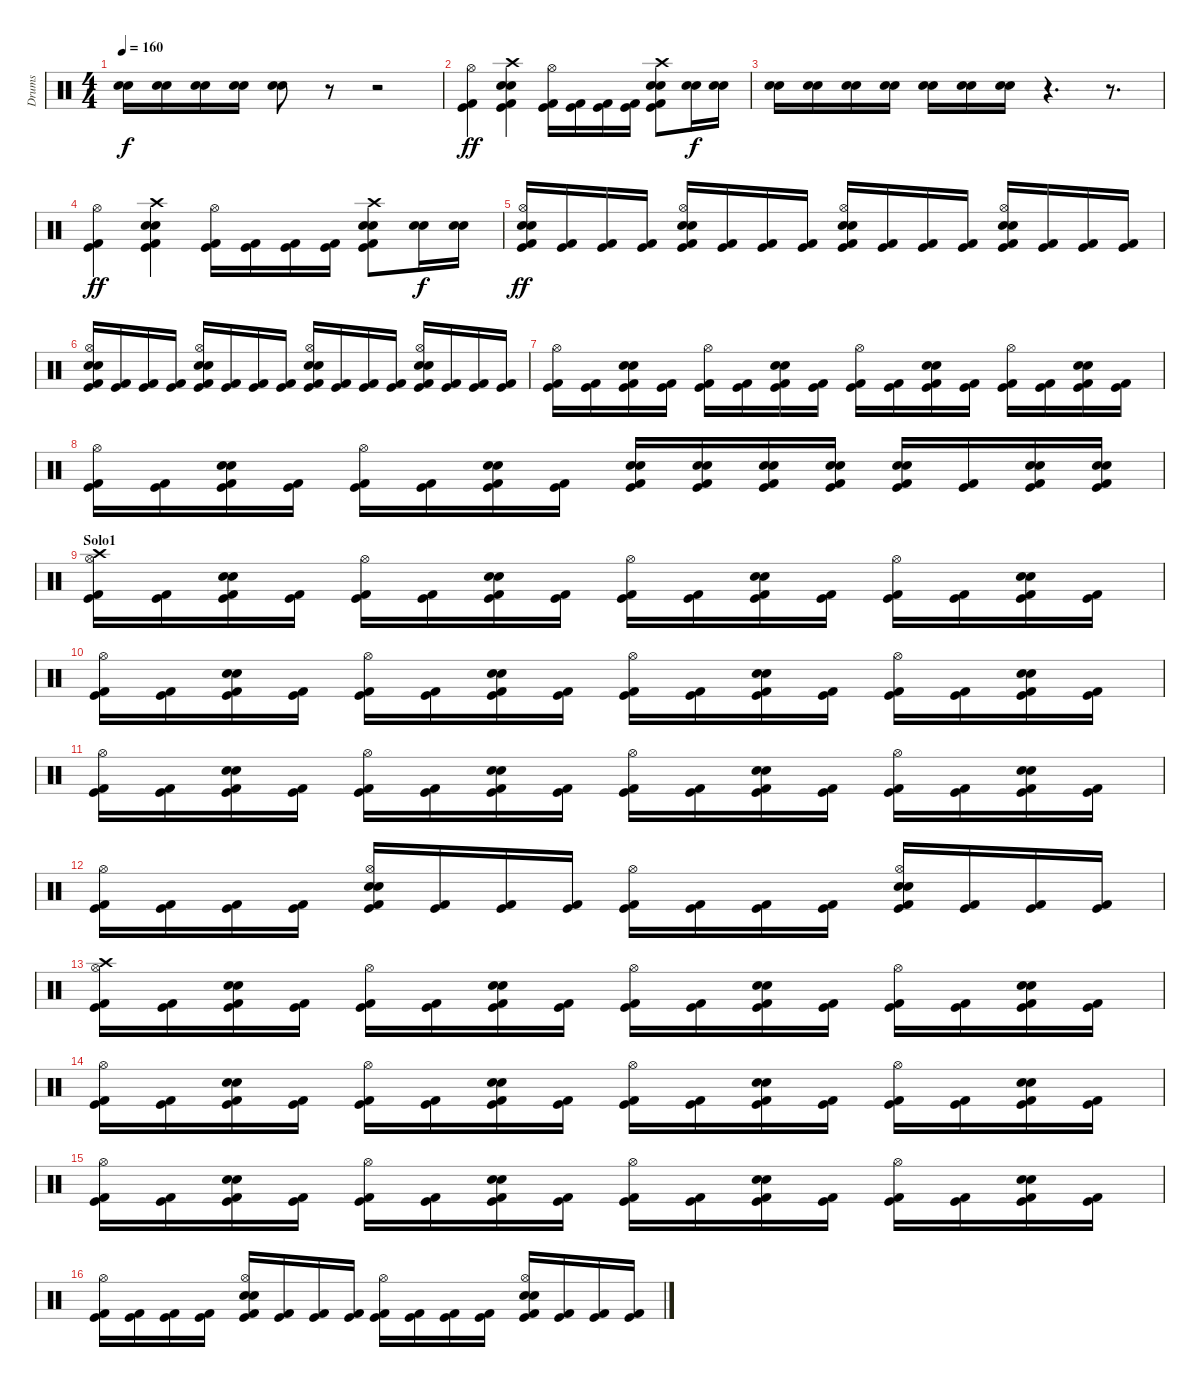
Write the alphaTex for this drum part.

\track ("Drums" "Drums") {instrument percussion}
\staff {score}
\articulation defaults
\ts (4 4)
\tempo 160
\clef neutral
\ks c
("Electric Snare (hit)" "Snare (hit) 2").16{dy f} ("Electric Snare (hit)" "Snare (hit) 2").16 ("Electric Snare (hit)" "Snare (hit) 2").16 ("Electric Snare (hit)" "Snare (hit) 2").16 ("Electric Snare (hit)" "Snare (hit) 2").8 r.8 r.2 |
("Hi-Hat (open)" "Kick (hit) 2" "Kick (hit)").4{dy ff} ("Crash high (hit)" "Snare (hit) 2" "Electric Snare (hit)" "Kick (hit) 2" "Kick (hit)").4 ("Hi-Hat (open)" "Kick (hit) 2" "Kick (hit)").16 ("Kick (hit) 2" "Kick (hit)").16 ("Kick (hit) 2" "Kick (hit)").16 ("Kick (hit) 2" "Kick (hit)").16 ("Crash high (hit)" "Snare (hit) 2" "Electric Snare (hit)" "Kick (hit) 2" "Kick (hit)").8 ("Electric Snare (hit)" "Snare (hit) 2").16{dy f} ("Electric Snare (hit)" "Snare (hit) 2").16 |
("Electric Snare (hit)" "Snare (hit) 2").16 ("Electric Snare (hit)" "Snare (hit) 2").16 ("Electric Snare (hit)" "Snare (hit) 2").16 ("Electric Snare (hit)" "Snare (hit) 2").16 ("Electric Snare (hit)" "Snare (hit) 2").16 ("Electric Snare (hit)" "Snare (hit) 2").16 ("Electric Snare (hit)" "Snare (hit) 2").16 r.4{d} r.8{d} |
("Hi-Hat (open)" "Kick (hit) 2" "Kick (hit)").4{dy ff} ("Crash high (hit)" "Snare (hit) 2" "Electric Snare (hit)" "Kick (hit) 2" "Kick (hit)").4 ("Hi-Hat (open)" "Kick (hit) 2" "Kick (hit)").16 ("Kick (hit) 2" "Kick (hit)").16 ("Kick (hit) 2" "Kick (hit)").16 ("Kick (hit) 2" "Kick (hit)").16 ("Crash high (hit)" "Snare (hit) 2" "Electric Snare (hit)" "Kick (hit) 2" "Kick (hit)").8 ("Electric Snare (hit)" "Snare (hit) 2").16{dy f} ("Electric Snare (hit)" "Snare (hit) 2").16 |
("Hi-Hat (open)" "Electric Snare (hit)" "Snare (hit) 2" "Kick (hit) 2" "Kick (hit)").16{dy ff} ("Kick (hit) 2" "Kick (hit)").16 ("Kick (hit) 2" "Kick (hit)").16 ("Kick (hit) 2" "Kick (hit)").16 ("Hi-Hat (open)" "Snare (hit) 2" "Electric Snare (hit)" "Kick (hit) 2" "Kick (hit)").16 ("Kick (hit) 2" "Kick (hit)").16 ("Kick (hit) 2" "Kick (hit)").16 ("Kick (hit) 2" "Kick (hit)").16 ("Hi-Hat (open)" "Electric Snare (hit)" "Snare (hit) 2" "Kick (hit) 2" "Kick (hit)").16 ("Kick (hit) 2" "Kick (hit)").16 ("Kick (hit) 2" "Kick (hit)").16 ("Kick (hit) 2" "Kick (hit)").16 ("Hi-Hat (open)" "Snare (hit) 2" "Electric Snare (hit)" "Kick (hit) 2" "Kick (hit)").16 ("Kick (hit) 2" "Kick (hit)").16 ("Kick (hit) 2" "Kick (hit)").16 ("Kick (hit) 2" "Kick (hit)").16 |
("Hi-Hat (open)" "Snare (hit) 2" "Electric Snare (hit)" "Kick (hit) 2" "Kick (hit)").16 ("Kick (hit) 2" "Kick (hit)").16 ("Kick (hit) 2" "Kick (hit)").16 ("Kick (hit) 2" "Kick (hit)").16 ("Hi-Hat (open)" "Snare (hit) 2" "Electric Snare (hit)" "Kick (hit) 2" "Kick (hit)").16 ("Kick (hit) 2" "Kick (hit)").16 ("Kick (hit) 2" "Kick (hit)").16 ("Kick (hit) 2" "Kick (hit)").16 ("Hi-Hat (open)" "Snare (hit) 2" "Electric Snare (hit)" "Kick (hit) 2" "Kick (hit)").16 ("Kick (hit) 2" "Kick (hit)").16 ("Kick (hit) 2" "Kick (hit)").16 ("Kick (hit) 2" "Kick (hit)").16 ("Hi-Hat (open)" "Snare (hit) 2" "Electric Snare (hit)" "Kick (hit) 2" "Kick (hit)").16 ("Kick (hit) 2" "Kick (hit)").16 ("Kick (hit) 2" "Kick (hit)").16 ("Kick (hit) 2" "Kick (hit)").16 |
("Hi-Hat (open)" "Kick (hit) 2" "Kick (hit)").16 ("Kick (hit) 2" "Kick (hit)").16 ("Electric Snare (hit)" "Snare (hit) 2" "Kick (hit) 2" "Kick (hit)").16 ("Kick (hit) 2" "Kick (hit)").16 ("Hi-Hat (open)" "Kick (hit) 2" "Kick (hit)").16 ("Kick (hit) 2" "Kick (hit)").16 ("Electric Snare (hit)" "Snare (hit) 2" "Kick (hit) 2" "Kick (hit)").16 ("Kick (hit) 2" "Kick (hit)").16 ("Hi-Hat (open)" "Kick (hit) 2" "Kick (hit)").16 ("Kick (hit) 2" "Kick (hit)").16 ("Electric Snare (hit)" "Snare (hit) 2" "Kick (hit) 2" "Kick (hit)").16 ("Kick (hit) 2" "Kick (hit)").16 ("Hi-Hat (open)" "Kick (hit) 2" "Kick (hit)").16 ("Kick (hit) 2" "Kick (hit)").16 ("Electric Snare (hit)" "Snare (hit) 2" "Kick (hit) 2" "Kick (hit)").16 ("Kick (hit) 2" "Kick (hit)").16 |
("Hi-Hat (open)" "Kick (hit) 2" "Kick (hit)").16 ("Kick (hit) 2" "Kick (hit)").16 ("Electric Snare (hit)" "Snare (hit) 2" "Kick (hit) 2" "Kick (hit)").16 ("Kick (hit) 2" "Kick (hit)").16 ("Hi-Hat (open)" "Kick (hit) 2" "Kick (hit)").16 ("Kick (hit) 2" "Kick (hit)").16 ("Electric Snare (hit)" "Snare (hit) 2" "Kick (hit) 2" "Kick (hit)").16 ("Kick (hit) 2" "Kick (hit)").16 ("Electric Snare (hit)" "Snare (hit) 2" "Kick (hit) 2" "Kick (hit)").16 ("Electric Snare (hit)" "Snare (hit) 2" "Kick (hit) 2" "Kick (hit)").16 ("Electric Snare (hit)" "Snare (hit) 2" "Kick (hit) 2" "Kick (hit)").16 ("Electric Snare (hit)" "Snare (hit) 2" "Kick (hit) 2" "Kick (hit)").16 ("Electric Snare (hit)" "Snare (hit) 2" "Kick (hit) 2" "Kick (hit)").16 ("Kick (hit) 2" "Kick (hit)").16 ("Electric Snare (hit)" "Snare (hit) 2" "Kick (hit) 2" "Kick (hit)").16 ("Electric Snare (hit)" "Snare (hit) 2" "Kick (hit) 2" "Kick (hit)").16 |
\section ("" "Solo1")
("Hi-Hat (open)" "Crash high (hit)" "Kick (hit) 2" "Kick (hit)").16 ("Kick (hit) 2" "Kick (hit)").16 ("Electric Snare (hit)" "Snare (hit) 2" "Kick (hit) 2" "Kick (hit)").16 ("Kick (hit) 2" "Kick (hit)").16 ("Hi-Hat (open)" "Kick (hit) 2" "Kick (hit)").16 ("Kick (hit) 2" "Kick (hit)").16 ("Electric Snare (hit)" "Snare (hit) 2" "Kick (hit) 2" "Kick (hit)").16 ("Kick (hit) 2" "Kick (hit)").16 ("Hi-Hat (open)" "Kick (hit) 2" "Kick (hit)").16 ("Kick (hit) 2" "Kick (hit)").16 ("Electric Snare (hit)" "Snare (hit) 2" "Kick (hit) 2" "Kick (hit)").16 ("Kick (hit) 2" "Kick (hit)").16 ("Hi-Hat (open)" "Kick (hit) 2" "Kick (hit)").16 ("Kick (hit) 2" "Kick (hit)").16 ("Electric Snare (hit)" "Snare (hit) 2" "Kick (hit) 2" "Kick (hit)").16 ("Kick (hit) 2" "Kick (hit)").16 |
("Hi-Hat (open)" "Kick (hit) 2" "Kick (hit)").16 ("Kick (hit) 2" "Kick (hit)").16 ("Electric Snare (hit)" "Snare (hit) 2" "Kick (hit) 2" "Kick (hit)").16 ("Kick (hit) 2" "Kick (hit)").16 ("Hi-Hat (open)" "Kick (hit) 2" "Kick (hit)").16 ("Kick (hit) 2" "Kick (hit)").16 ("Electric Snare (hit)" "Snare (hit) 2" "Kick (hit) 2" "Kick (hit)").16 ("Kick (hit) 2" "Kick (hit)").16 ("Hi-Hat (open)" "Kick (hit) 2" "Kick (hit)").16 ("Kick (hit) 2" "Kick (hit)").16 ("Electric Snare (hit)" "Snare (hit) 2" "Kick (hit) 2" "Kick (hit)").16 ("Kick (hit) 2" "Kick (hit)").16 ("Hi-Hat (open)" "Kick (hit) 2" "Kick (hit)").16 ("Kick (hit) 2" "Kick (hit)").16 ("Electric Snare (hit)" "Snare (hit) 2" "Kick (hit) 2" "Kick (hit)").16 ("Kick (hit) 2" "Kick (hit)").16 |
("Hi-Hat (open)" "Kick (hit) 2" "Kick (hit)").16 ("Kick (hit) 2" "Kick (hit)").16 ("Electric Snare (hit)" "Snare (hit) 2" "Kick (hit) 2" "Kick (hit)").16 ("Kick (hit) 2" "Kick (hit)").16 ("Hi-Hat (open)" "Kick (hit) 2" "Kick (hit)").16 ("Kick (hit) 2" "Kick (hit)").16 ("Electric Snare (hit)" "Snare (hit) 2" "Kick (hit) 2" "Kick (hit)").16 ("Kick (hit) 2" "Kick (hit)").16 ("Hi-Hat (open)" "Kick (hit) 2" "Kick (hit)").16 ("Kick (hit) 2" "Kick (hit)").16 ("Electric Snare (hit)" "Snare (hit) 2" "Kick (hit) 2" "Kick (hit)").16 ("Kick (hit) 2" "Kick (hit)").16 ("Hi-Hat (open)" "Kick (hit) 2" "Kick (hit)").16 ("Kick (hit) 2" "Kick (hit)").16 ("Electric Snare (hit)" "Snare (hit) 2" "Kick (hit) 2" "Kick (hit)").16 ("Kick (hit) 2" "Kick (hit)").16 |
("Hi-Hat (open)" "Kick (hit) 2" "Kick (hit)").16 ("Kick (hit) 2" "Kick (hit)").16 ("Kick (hit) 2" "Kick (hit)").16 ("Kick (hit) 2" "Kick (hit)").16 ("Hi-Hat (open)" "Snare (hit) 2" "Electric Snare (hit)" "Kick (hit) 2" "Kick (hit)").16 ("Kick (hit) 2" "Kick (hit)").16 ("Kick (hit) 2" "Kick (hit)").16 ("Kick (hit) 2" "Kick (hit)").16 ("Hi-Hat (open)" "Kick (hit) 2" "Kick (hit)").16 ("Kick (hit) 2" "Kick (hit)").16 ("Kick (hit) 2" "Kick (hit)").16 ("Kick (hit) 2" "Kick (hit)").16 ("Hi-Hat (open)" "Snare (hit) 2" "Electric Snare (hit)" "Kick (hit) 2" "Kick (hit)").16 ("Kick (hit) 2" "Kick (hit)").16 ("Kick (hit) 2" "Kick (hit)").16 ("Kick (hit) 2" "Kick (hit)").16 |
("Hi-Hat (open)" "Crash high (hit)" "Kick (hit) 2" "Kick (hit)").16 ("Kick (hit) 2" "Kick (hit)").16 ("Electric Snare (hit)" "Snare (hit) 2" "Kick (hit) 2" "Kick (hit)").16 ("Kick (hit) 2" "Kick (hit)").16 ("Hi-Hat (open)" "Kick (hit) 2" "Kick (hit)").16 ("Kick (hit) 2" "Kick (hit)").16 ("Electric Snare (hit)" "Snare (hit) 2" "Kick (hit) 2" "Kick (hit)").16 ("Kick (hit) 2" "Kick (hit)").16 ("Hi-Hat (open)" "Kick (hit) 2" "Kick (hit)").16 ("Kick (hit) 2" "Kick (hit)").16 ("Electric Snare (hit)" "Snare (hit) 2" "Kick (hit) 2" "Kick (hit)").16 ("Kick (hit) 2" "Kick (hit)").16 ("Hi-Hat (open)" "Kick (hit) 2" "Kick (hit)").16 ("Kick (hit) 2" "Kick (hit)").16 ("Electric Snare (hit)" "Snare (hit) 2" "Kick (hit) 2" "Kick (hit)").16 ("Kick (hit) 2" "Kick (hit)").16 |
("Hi-Hat (open)" "Kick (hit) 2" "Kick (hit)").16 ("Kick (hit) 2" "Kick (hit)").16 ("Electric Snare (hit)" "Snare (hit) 2" "Kick (hit) 2" "Kick (hit)").16 ("Kick (hit) 2" "Kick (hit)").16 ("Hi-Hat (open)" "Kick (hit) 2" "Kick (hit)").16 ("Kick (hit) 2" "Kick (hit)").16 ("Electric Snare (hit)" "Snare (hit) 2" "Kick (hit) 2" "Kick (hit)").16 ("Kick (hit) 2" "Kick (hit)").16 ("Hi-Hat (open)" "Kick (hit) 2" "Kick (hit)").16 ("Kick (hit) 2" "Kick (hit)").16 ("Electric Snare (hit)" "Snare (hit) 2" "Kick (hit) 2" "Kick (hit)").16 ("Kick (hit) 2" "Kick (hit)").16 ("Hi-Hat (open)" "Kick (hit) 2" "Kick (hit)").16 ("Kick (hit) 2" "Kick (hit)").16 ("Electric Snare (hit)" "Snare (hit) 2" "Kick (hit) 2" "Kick (hit)").16 ("Kick (hit) 2" "Kick (hit)").16 |
("Hi-Hat (open)" "Kick (hit) 2" "Kick (hit)").16 ("Kick (hit) 2" "Kick (hit)").16 ("Electric Snare (hit)" "Snare (hit) 2" "Kick (hit) 2" "Kick (hit)").16 ("Kick (hit) 2" "Kick (hit)").16 ("Hi-Hat (open)" "Kick (hit) 2" "Kick (hit)").16 ("Kick (hit) 2" "Kick (hit)").16 ("Electric Snare (hit)" "Snare (hit) 2" "Kick (hit) 2" "Kick (hit)").16 ("Kick (hit) 2" "Kick (hit)").16 ("Hi-Hat (open)" "Kick (hit) 2" "Kick (hit)").16 ("Kick (hit) 2" "Kick (hit)").16 ("Electric Snare (hit)" "Snare (hit) 2" "Kick (hit) 2" "Kick (hit)").16 ("Kick (hit) 2" "Kick (hit)").16 ("Hi-Hat (open)" "Kick (hit) 2" "Kick (hit)").16 ("Kick (hit) 2" "Kick (hit)").16 ("Electric Snare (hit)" "Snare (hit) 2" "Kick (hit) 2" "Kick (hit)").16 ("Kick (hit) 2" "Kick (hit)").16 |
("Hi-Hat (open)" "Kick (hit) 2" "Kick (hit)").16 ("Kick (hit) 2" "Kick (hit)").16 ("Kick (hit) 2" "Kick (hit)").16 ("Kick (hit) 2" "Kick (hit)").16 ("Hi-Hat (open)" "Snare (hit) 2" "Electric Snare (hit)" "Kick (hit) 2" "Kick (hit)").16 ("Kick (hit) 2" "Kick (hit)").16 ("Kick (hit) 2" "Kick (hit)").16 ("Kick (hit) 2" "Kick (hit)").16 ("Hi-Hat (open)" "Kick (hit) 2" "Kick (hit)").16 ("Kick (hit) 2" "Kick (hit)").16 ("Kick (hit) 2" "Kick (hit)").16 ("Kick (hit) 2" "Kick (hit)").16 ("Hi-Hat (open)" "Snare (hit) 2" "Electric Snare (hit)" "Kick (hit) 2" "Kick (hit)").16 ("Kick (hit) 2" "Kick (hit)").16 ("Kick (hit) 2" "Kick (hit)").16 ("Kick (hit) 2" "Kick (hit)").16
